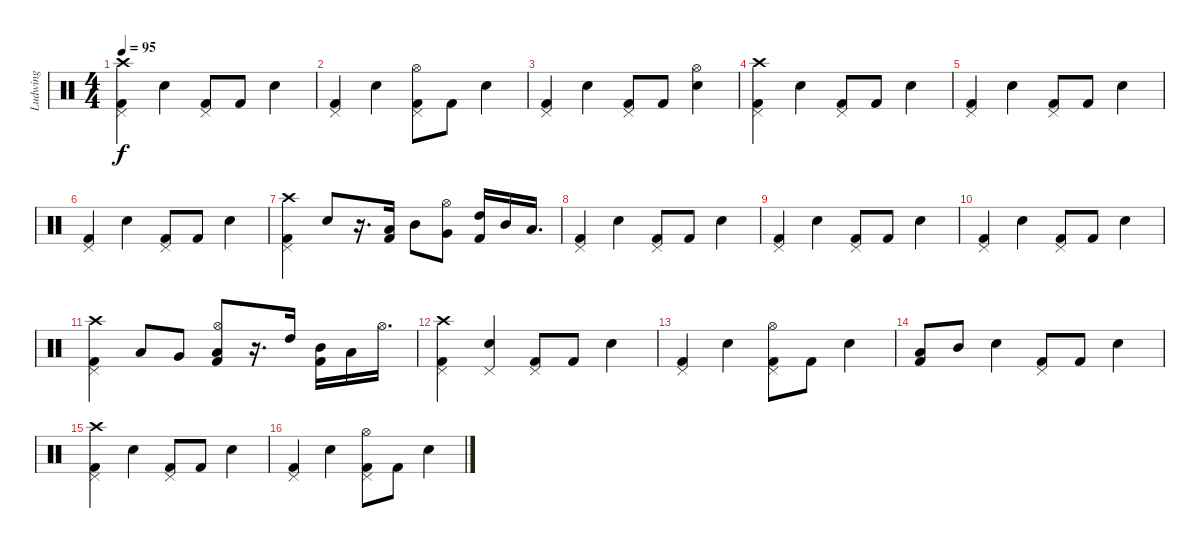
\track ("Ludwing" "Ludwing") {instrument percussion}
\staff {score}
\articulation defaults
\ts (4 4)
\tempo 95
\clef neutral
\ks c
("Kick (hit) 2" "Pedal Hi-Hat (hit)" "Crash high (hit)").4{dy f} "Snare (hit) 2".4 ("Kick (hit) 2" "Pedal Hi-Hat (hit)").8 "Kick (hit) 2".8 "Snare (hit) 2".4 |
("Kick (hit) 2" "Pedal Hi-Hat (hit)").4 "Snare (hit) 2".4 ("Kick (hit) 2" "Pedal Hi-Hat (hit)" "Hi-Hat (open)").8 "Kick (hit) 2".8 "Snare (hit) 2".4 |
("Kick (hit) 2" "Pedal Hi-Hat (hit)").4 "Snare (hit) 2".4 ("Kick (hit) 2" "Pedal Hi-Hat (hit)").8 "Kick (hit) 2".8 ("Snare (hit) 2" "Hi-Hat (open)").4 |
("Kick (hit) 2" "Pedal Hi-Hat (hit)" "Crash high (hit)").4 "Snare (hit) 2".4 ("Kick (hit) 2" "Pedal Hi-Hat (hit)").8 "Kick (hit) 2".8 "Snare (hit) 2".4 |
("Kick (hit) 2" "Pedal Hi-Hat (hit)").4 "Snare (hit) 2".4 ("Kick (hit) 2" "Pedal Hi-Hat (hit)").8 "Kick (hit) 2".8 "Snare (hit) 2".4 |
("Kick (hit) 2" "Pedal Hi-Hat (hit)").4 "Snare (hit) 2".4 ("Kick (hit) 2" "Pedal Hi-Hat (hit)").8 "Kick (hit) 2".8 "Snare (hit) 2".4 |
("Kick (hit) 2" "Pedal Hi-Hat (hit)" "Crash high (hit)").4 "Snare (hit) 2".8 r.16{d} ("Kick (hit) 2" "Low Tom (hit)").16 "Mid Tom (hit)".8 ("Very Low Tom (hit)" "Hi-Hat (open)").8 ("Kick (hit) 2" "High Tom (hit)").16 "Mid Tom (hit)".16 "Low Tom (hit)".16{d} |
("Kick (hit) 2" "Pedal Hi-Hat (hit)").4 "Snare (hit) 2".4 ("Kick (hit) 2" "Pedal Hi-Hat (hit)").8 "Kick (hit) 2".8 "Snare (hit) 2".4 |
("Kick (hit) 2" "Pedal Hi-Hat (hit)").4 "Snare (hit) 2".4 ("Kick (hit) 2" "Pedal Hi-Hat (hit)").8 "Kick (hit) 2".8 "Snare (hit) 2".4 |
("Kick (hit) 2" "Pedal Hi-Hat (hit)").4 "Snare (hit) 2".4 ("Kick (hit) 2" "Pedal Hi-Hat (hit)").8 "Kick (hit) 2".8 "Snare (hit) 2".4 |
("Kick (hit) 2" "Pedal Hi-Hat (hit)" "Crash high (hit)").4 "Low Floor Tom (hit)".8 "Very Low Tom (hit)".8 ("Kick (hit) 2" "Hi-Hat (open)" "Low Tom (hit)").8 r.16{d} "High Tom (hit)".16 ("Kick (hit) 2" "Mid Tom (hit)").16 "Low Tom (hit)".16 "Hi-Hat (open)".16{d} |
("Kick (hit) 2" "Pedal Hi-Hat (hit)" "Crash high (hit)").4 ("Pedal Hi-Hat (hit)" "Snare (hit) 2").4 ("Kick (hit) 2" "Pedal Hi-Hat (hit)").8 "Kick (hit) 2".8 "Snare (hit) 2".4 |
("Kick (hit) 2" "Pedal Hi-Hat (hit)").4 "Snare (hit) 2".4 ("Kick (hit) 2" "Pedal Hi-Hat (hit)" "Hi-Hat (open)").8 "Kick (hit) 2".8 "Snare (hit) 2".4 |
("Kick (hit) 2" "Low Tom (hit)").8 "Mid Tom (hit)".8 "Snare (hit) 2".4 ("Kick (hit) 2" "Pedal Hi-Hat (hit)").8 "Kick (hit) 2".8 "Snare (hit) 2".4 |
("Kick (hit) 2" "Pedal Hi-Hat (hit)" "Crash high (hit)").4 "Snare (hit) 2".4 ("Kick (hit) 2" "Pedal Hi-Hat (hit)").8 "Kick (hit) 2".8 "Snare (hit) 2".4 |
("Kick (hit) 2" "Pedal Hi-Hat (hit)").4 "Snare (hit) 2".4 ("Kick (hit) 2" "Pedal Hi-Hat (hit)" "Hi-Hat (open)").8 "Kick (hit) 2".8 "Snare (hit) 2".4
